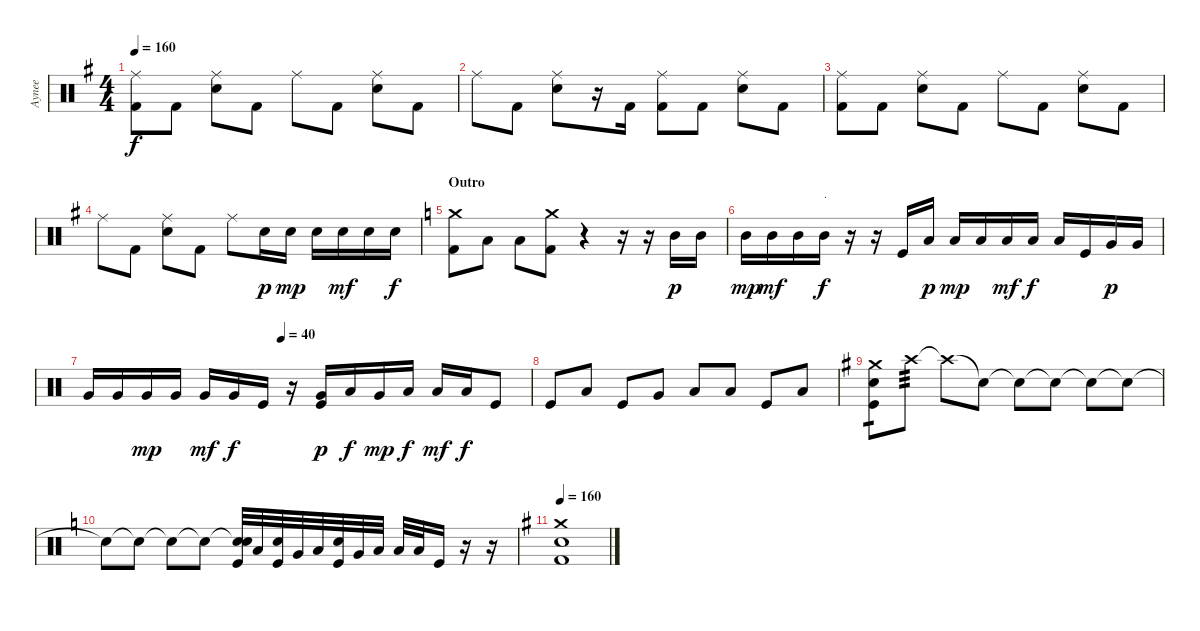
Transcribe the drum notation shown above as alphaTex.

\track ("Aynee " "Aynee ") {instrument percussion}
\staff {score}
\articulation defaults
\ts (4 4)
\tempo 160
\clef neutral
\ks eminor
("Ride (middle)" "Kick (hit) 2").8{dy f} "Kick (hit) 2".8 ("Ride (middle)" "Electric Snare (hit)").8 "Kick (hit) 2".8 "Ride (middle)".8 "Kick (hit) 2".8 ("Ride (middle)" "Electric Snare (hit)").8 "Kick (hit) 2".8 |
"Ride (middle)".8 "Kick (hit) 2".8 ("Ride (middle)" "Electric Snare (hit)").8 r.16 "Kick (hit) 2".16 ("Ride (middle)" "Kick (hit) 2").8 "Kick (hit) 2".8 ("Ride (middle)" "Electric Snare (hit)").8 "Kick (hit) 2".8 |
("Ride (middle)" "Kick (hit) 2").8 "Kick (hit) 2".8 ("Ride (middle)" "Electric Snare (hit)").8 "Kick (hit) 2".8 "Ride (middle)".8 "Kick (hit) 2".8 ("Ride (middle)" "Electric Snare (hit)").8 "Kick (hit) 2".8 |
"Ride (middle)".8 "Kick (hit) 2".8 ("Ride (middle)" "Electric Snare (hit)").8 "Kick (hit) 2".8 "Ride (middle)".8 "Electric Snare (hit)".16{dy p} "Electric Snare (hit)".16{dy mp} "Electric Snare (hit)".16 "Electric Snare (hit)".16{dy mf} "Electric Snare (hit)".16 "Electric Snare (hit)".16{dy f} |
\section ("" "Outro")
\ks c
("Crash medium (hit)" "Kick (hit) 2").8 "Low Floor Tom (hit)".8 "Low Floor Tom (hit)".8 ("Crash medium (hit)" "Kick (hit) 2").8 r.4 r.16 r.16 "Mid Tom (hit)".16{dy p} "Mid Tom (hit)".16 |
"Mid Tom (hit)".16{dy mp} "Mid Tom (hit)".16{dy mf} "Mid Tom (hit)".16 "Mid Tom (hit)".16{txt "." dy f} r.16 r.16 "Kick (hit)".16 "Low Tom (hit)".16{dy p} "Low Tom (hit)".16{dy mp} "Low Tom (hit)".16 "Low Tom (hit)".16{dy mf} "Low Tom (hit)".16{dy f} "Low Tom (hit)".16 "Kick (hit)".16 "Very Low Tom (hit)".16{dy p} "Very Low Tom (hit)".16 |
\tempo (40 0.4375)
"Very Low Tom (hit)".16 "Very Low Tom (hit)".16 "Very Low Tom (hit)".16{dy mp} "Very Low Tom (hit)".16{txt ""} "Very Low Tom (hit)".16{dy mf} "Very Low Tom (hit)".16{dy f} "Kick (hit)".16 r.16 ("Very Low Tom (hit)" "Kick (hit)").16{dy p} "Low Tom (hit)".16{dy f} "Very Low Tom (hit)".16{dy mp} "Low Tom (hit)".16{dy f} "Low Floor Tom (hit)".16{dy mf} "Low Floor Tom (hit)".16{dy f} "Kick (hit)".8 |
"Kick (hit)".8{txt ""} "Low Tom (hit)".8 "Kick (hit)".8 "Very Low Tom (hit)".8 "Low Floor Tom (hit)".8 "Low Floor Tom (hit)".8 "Kick (hit)".8 "Low Floor Tom (hit)".8 |
\ks eminor
("Crash medium (hit)" "Electric Snare (hit)" "Kick (hit)").8{tp 1 volume 4} "Crash high (hit)".8{tp 3} "Crash high (hit)"{t}.8 "Snare (hit)"{t}.8 "Snare (hit)"{t}.8 "Snare (hit)"{t}.8 "Snare (hit)"{t}.8 "Snare (hit)"{t}.8 |
\ks c "Snare (hit)"{t}.8{volume 13} "Snare (hit)"{t}.8 "Snare (hit)"{t}.8 "Snare (hit)"{t}.8
("Snare (hit)"{t} "Electric Snare (hit)" "Kick (hit)").32 "Low Tom (hit)".32 ("Electric Snare (hit)" "Kick (hit)").32 "Very Low Tom (hit)".32 "Low Floor Tom (hit)".32 ("Electric Snare (hit)" "Kick (hit)").32 "Very Low Tom (hit)".32 "Low Floor Tom (hit)".32 "Low Floor Tom (hit)".32 "Low Floor Tom (hit)".32 "Kick (hit)".16 r.16 r.16 |
\tempo 160
\ks eminor
("Crash medium (hit)" "Electric Snare (hit)" "Kick (hit) 2").1
